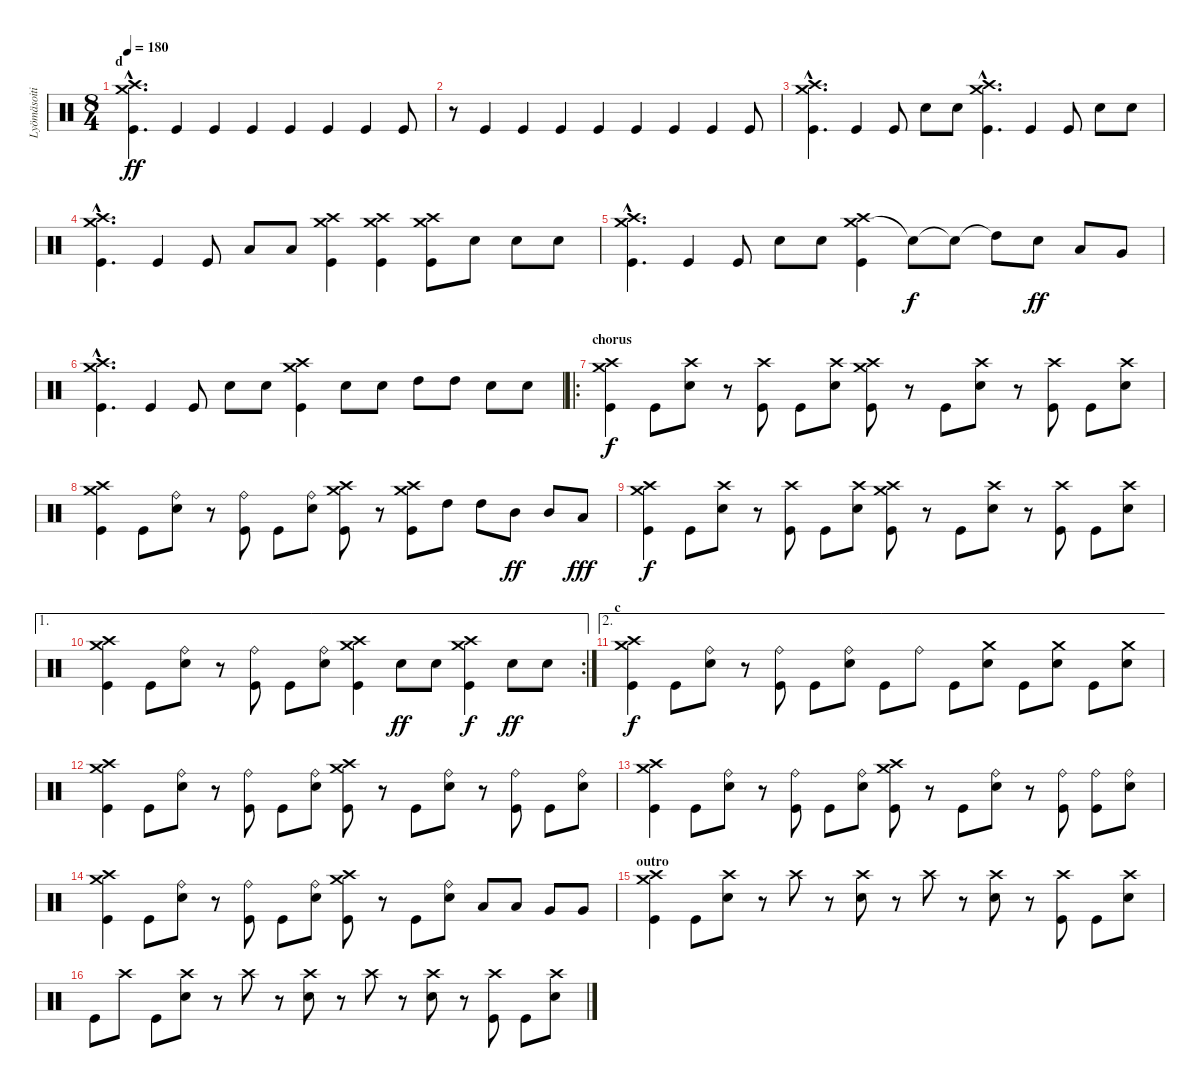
\track ("Lyömäsoitin" "Lyömäsoiti") {instrument percussion}
\staff {score}
\articulation defaults
\ts (8 4)
\section ("" "d")
\tempo 180
\clef neutral
\ks c
("Crash medium (hit)"{hac} "Crash high (hit)"{hac} "Kick (hit)"{hac}).4{d dy ff} "Kick (hit)".4 "Kick (hit)".4 "Kick (hit)".4 "Kick (hit)".4 "Kick (hit)".4 "Kick (hit)".4 "Kick (hit)".8 |
r.8 "Kick (hit)".4 "Kick (hit)".4 "Kick (hit)".4 "Kick (hit)".4 "Kick (hit)".4 "Kick (hit)".4 "Kick (hit)".4 "Kick (hit)".8 |
("Crash medium (hit)"{hac} "Crash high (hit)"{hac} "Kick (hit)"{hac}).4{d} "Kick (hit)".4 "Kick (hit)".8 "Snare (hit) 2".8 "Snare (hit) 2".8 ("Crash medium (hit)"{hac} "Crash high (hit)"{hac} "Kick (hit)"{hac}).4{d} "Kick (hit)".4 "Kick (hit)".8 "Snare (hit) 2".8 "Snare (hit) 2".8 |
("Crash medium (hit)"{hac} "Crash high (hit)"{hac} "Kick (hit)"{hac}).4{d} "Kick (hit)".4 "Kick (hit)".8 "Low Tom (hit)".8 "Low Tom (hit)".8 ("Crash medium (hit)" "Crash high (hit)" "Kick (hit)").4 ("Crash medium (hit)" "Crash high (hit)" "Kick (hit)").4 ("Crash medium (hit)" "Crash high (hit)" "Kick (hit)").8 "Snare (hit) 2".8 "Snare (hit) 2".8 "Snare (hit) 2".8 |
("Crash medium (hit)"{hac} "Crash high (hit)"{hac} "Kick (hit)"{hac}).4{d} "Kick (hit)".4 "Kick (hit)".8 "Snare (hit) 2".8 "Snare (hit) 2".8 ("Crash medium (hit)" "Crash high (hit)" "Kick (hit)").4 "Snare (hit) 2"{t}.8{dy f} "Snare (hit) 2"{t}.8 "High Tom (hit)"{t}.8 "Snare (hit) 2".8{dy ff} "Low Tom (hit)".8 "Very Low Tom (hit)".8 |
("Crash medium (hit)"{hac} "Crash high (hit)"{hac} "Kick (hit)"{hac}).4{d} "Kick (hit)".4 "Kick (hit)".8 "Snare (hit) 2".8 "Snare (hit) 2".8 ("Crash medium (hit)" "Crash high (hit)" "Kick (hit)").4 "Snare (hit) 2".8 "Snare (hit) 2".8 "High Tom (hit)".8 "High Tom (hit)".8 "Snare (hit) 2".8 "Snare (hit) 2".8 |
\ro
\section ("" "chorus")
("Crash medium (hit)" "Crash high (hit)" "Kick (hit)").4{dy f} "Kick (hit)".8 ("Crash high (hit)" "Snare (hit) 2").8 r.8 ("Crash high (hit)" "Kick (hit)").8 "Kick (hit)".8 ("Crash high (hit)" "Snare (hit) 2").8 ("Crash medium (hit)" "Crash high (hit)" "Kick (hit)").8 r.8 "Kick (hit)".8 ("Crash high (hit)" "Snare (hit) 2").8 r.8 ("Crash high (hit)" "Kick (hit)").8 "Kick (hit)".8 ("Crash high (hit)" "Snare (hit) 2").8 |
("Crash medium (hit)" "Crash high (hit)" "Kick (hit)").4 "Kick (hit)".8 ("Ride (bell)" "Snare (hit) 2").8 r.8 ("Ride (bell)" "Kick (hit)").8 "Kick (hit)".8 ("Ride (bell)" "Snare (hit) 2").8 ("Crash medium (hit)" "Crash high (hit)" "Kick (hit)").8 r.8 ("Crash medium (hit)" "Crash high (hit)" "Kick (hit)").8 "High Tom (hit)".8 "High Tom (hit)".8 "Mid Tom (hit)".8{dy ff} "Mid Tom (hit)".8 "Low Tom (hit)".8{dy fff} |
("Crash medium (hit)" "Crash high (hit)" "Kick (hit)").4{dy f} "Kick (hit)".8 ("Crash high (hit)" "Snare (hit) 2").8 r.8 ("Crash high (hit)" "Kick (hit)").8 "Kick (hit)".8 ("Crash high (hit)" "Snare (hit) 2").8 ("Crash medium (hit)" "Crash high (hit)" "Kick (hit)").8 r.8 "Kick (hit)".8 ("Crash high (hit)" "Snare (hit) 2").8 r.8 ("Crash high (hit)" "Kick (hit)").8 "Kick (hit)".8 ("Crash high (hit)" "Snare (hit) 2").8 |
\ae 1
\rc 2
("Crash medium (hit)" "Crash high (hit)" "Kick (hit)").4 "Kick (hit)".8 ("Ride (bell)" "Snare (hit) 2").8 r.8 ("Ride (bell)" "Kick (hit)").8 "Kick (hit)".8 ("Ride (bell)" "Snare (hit) 2").8 ("Crash medium (hit)" "Crash high (hit)" "Kick (hit)").4 "Snare (hit) 2".8{dy ff} "Snare (hit) 2".8 ("Crash medium (hit)" "Crash high (hit)" "Kick (hit)").4{dy f} "Snare (hit) 2".8{dy ff} "Snare (hit) 2".8 |
\ae 2
\section ("" "c")
("Crash medium (hit)" "Crash high (hit)" "Kick (hit)").4{dy f} "Kick (hit)".8 ("Ride (bell)" "Snare (hit) 2").8 r.8 ("Ride (bell)" "Kick (hit)").8 "Kick (hit)".8 ("Ride (bell)" "Snare (hit) 2").8 "Kick (hit)".8 "Ride (bell)".8 "Kick (hit)".8 ("Crash medium (hit)" "Snare (hit) 2").8 "Kick (hit)".8 ("Crash medium (hit)" "Snare (hit) 2").8 "Kick (hit)".8 ("Crash medium (hit)" "Snare (hit) 2").8 |
("Crash medium (hit)" "Crash high (hit)" "Kick (hit)").4 "Kick (hit)".8 ("Ride (bell)" "Snare (hit) 2").8 r.8 ("Ride (bell)" "Kick (hit)").8 "Kick (hit)".8 ("Ride (bell)" "Snare (hit) 2").8 ("Crash medium (hit)" "Crash high (hit)" "Kick (hit)").8 r.8 "Kick (hit)".8 ("Ride (bell)" "Snare (hit) 2").8 r.8 ("Ride (bell)" "Kick (hit)").8 "Kick (hit)".8 ("Ride (bell)" "Snare (hit) 2").8 |
("Crash medium (hit)" "Crash high (hit)" "Kick (hit)").4 "Kick (hit)".8 ("Ride (bell)" "Snare (hit) 2").8 r.8 ("Ride (bell)" "Kick (hit)").8 "Kick (hit)".8 ("Ride (bell)" "Snare (hit) 2").8 ("Crash medium (hit)" "Crash high (hit)" "Kick (hit)").8 r.8 "Kick (hit)".8 ("Ride (bell)" "Snare (hit) 2").8 r.8 ("Ride (bell)" "Kick (hit)").8 ("Ride (bell)" "Kick (hit)").8 ("Ride (bell)" "Snare (hit) 2").8 |
("Crash medium (hit)" "Crash high (hit)" "Kick (hit)").4 "Kick (hit)".8 ("Ride (bell)" "Snare (hit) 2").8 r.8 ("Ride (bell)" "Kick (hit)").8 "Kick (hit)".8 ("Ride (bell)" "Snare (hit) 2").8 ("Crash medium (hit)" "Crash high (hit)" "Kick (hit)").8 r.8 "Kick (hit)".8 ("Ride (bell)" "Snare (hit) 2").8 "Low Tom (hit)".8 "Low Tom (hit)".8 "Very Low Tom (hit)".8 "Very Low Tom (hit)".8 |
\section ("" "outro")
("Crash medium (hit)" "Crash high (hit)" "Kick (hit)").4 "Kick (hit)".8 ("Crash high (hit)" "Snare (hit) 2").8 r.8 "Crash high (hit)".8 r.8 ("Crash high (hit)" "Snare (hit) 2").8 r.8 "Crash high (hit)".8 r.8 ("Crash high (hit)" "Snare (hit) 2").8 r.8 ("Crash high (hit)" "Kick (hit)").8 "Kick (hit)".8 ("Crash high (hit)" "Snare (hit) 2").8 |
"Kick (hit)".8 "Crash high (hit)".8 "Kick (hit)".8 ("Crash high (hit)" "Snare (hit) 2").8 r.8 "Crash high (hit)".8 r.8 ("Crash high (hit)" "Snare (hit) 2").8 r.8 "Crash high (hit)".8 r.8 ("Crash high (hit)" "Snare (hit) 2").8 r.8 ("Crash high (hit)" "Kick (hit)").8 "Kick (hit)".8 ("Crash high (hit)" "Snare (hit) 2").8
